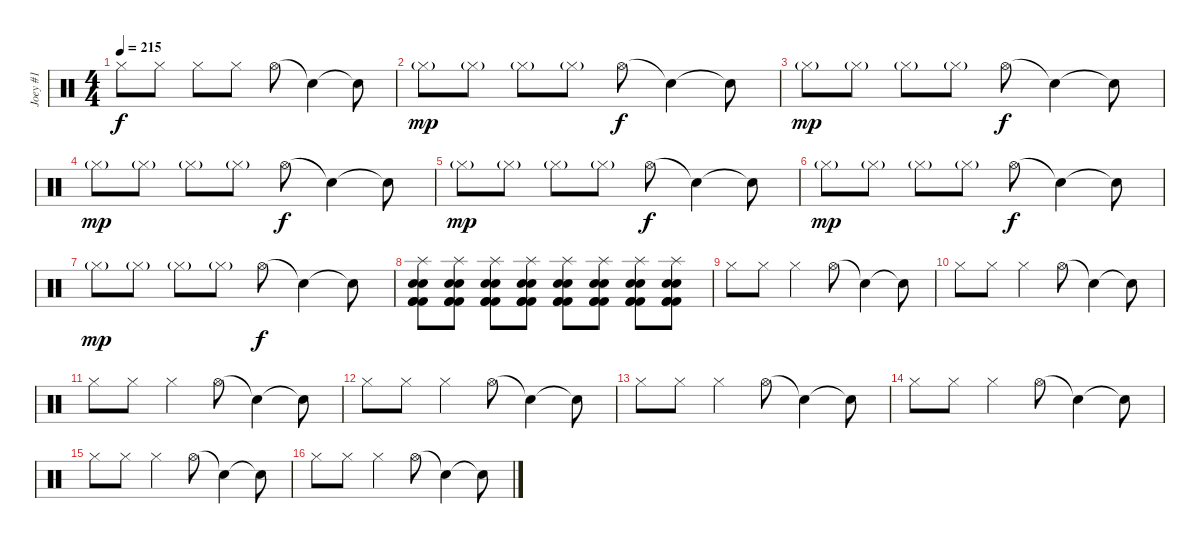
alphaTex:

\track ("Joey #1" "Joey #1") {instrument percussion}
\staff {score}
\articulation defaults
\ts (4 4)
\tempo 215
\clef neutral
\ks c "Hi-Hat (closed)".8{dy f volume 16} "Hi-Hat (closed)".8 "Hi-Hat (closed)".8 "Hi-Hat (closed)".8 "Hi-Hat (open)".8 "Snare (hit)"{t}.4 "Snare (hit)"{t}.8
|
"Hi-Hat (closed)"{g}.8{dy mp volume 10} "Hi-Hat (closed)"{g}.8 "Hi-Hat (closed)"{g}.8 "Hi-Hat (closed)"{g}.8 "Hi-Hat (open)".8{dy f} "Snare (hit)"{t}.4 "Snare (hit)"{t}.8 |
"Hi-Hat (closed)"{g}.8{dy mp} "Hi-Hat (closed)"{g}.8 "Hi-Hat (closed)"{g}.8 "Hi-Hat (closed)"{g}.8 "Hi-Hat (open)".8{dy f} "Snare (hit)"{t}.4 "Snare (hit)"{t}.8 |
"Hi-Hat (closed)"{g}.8{dy mp} "Hi-Hat (closed)"{g}.8 "Hi-Hat (closed)"{g}.8 "Hi-Hat (closed)"{g}.8 "Hi-Hat (open)".8{dy f} "Snare (hit)"{t}.4 "Snare (hit)"{t}.8 |
"Hi-Hat (closed)"{g}.8{dy mp} "Hi-Hat (closed)"{g}.8 "Hi-Hat (closed)"{g}.8 "Hi-Hat (closed)"{g}.8 "Hi-Hat (open)".8{dy f} "Snare (hit)"{t}.4 "Snare (hit)"{t}.8 |
"Hi-Hat (closed)"{g}.8{dy mp} "Hi-Hat (closed)"{g}.8 "Hi-Hat (closed)"{g}.8 "Hi-Hat (closed)"{g}.8 "Hi-Hat (open)".8{dy f} "Snare (hit)"{t}.4 "Snare (hit)"{t}.8 |
"Hi-Hat (closed)"{g}.8{dy mp} "Hi-Hat (closed)"{g}.8 "Hi-Hat (closed)"{g}.8 "Hi-Hat (closed)"{g}.8 "Hi-Hat (open)".8{dy f} "Snare (hit)"{t}.4 "Snare (hit)"{t}.8 |
("Kick (hit) 2" "Electric Snare (hit)" "Kick (hit) 2" "Splash (hit)" "Snare (hit) 2" "Kick (hit) 2").8 ("Kick (hit) 2" "Electric Snare (hit)" "Kick (hit) 2" "Splash (hit)" "Snare (hit) 2" "Kick (hit) 2").8 ("Kick (hit) 2" "Electric Snare (hit)" "Kick (hit) 2" "Splash (hit)" "Snare (hit) 2" "Kick (hit) 2").8 ("Kick (hit) 2" "Electric Snare (hit)" "Kick (hit) 2" "Splash (hit)" "Snare (hit) 2" "Kick (hit) 2").8 ("Kick (hit) 2" "Electric Snare (hit)" "Kick (hit) 2" "Splash (hit)" "Snare (hit) 2" "Kick (hit) 2").8 ("Kick (hit) 2" "Electric Snare (hit)" "Kick (hit) 2" "Splash (hit)" "Snare (hit) 2" "Kick (hit) 2").8 ("Kick (hit) 2" "Electric Snare (hit)" "Kick (hit) 2" "Splash (hit)" "Snare (hit) 2" "Kick (hit) 2").8 ("Kick (hit) 2" "Electric Snare (hit)" "Kick (hit) 2" "Splash (hit)" "Snare (hit) 2" "Kick (hit) 2").8 |
"Hi-Hat (closed)".8 "Hi-Hat (closed)".8 "Hi-Hat (closed)".4 "Hi-Hat (open)".8 "Snare (hit)"{t}.4 "Snare (hit)"{t}.8 |
"Hi-Hat (closed)".8 "Hi-Hat (closed)".8 "Hi-Hat (closed)".4 "Hi-Hat (open)".8 "Snare (hit)"{t}.4 "Snare (hit)"{t}.8 |
"Hi-Hat (closed)".8 "Hi-Hat (closed)".8 "Hi-Hat (closed)".4 "Hi-Hat (open)".8 "Snare (hit)"{t}.4 "Snare (hit)"{t}.8 |
"Hi-Hat (closed)".8 "Hi-Hat (closed)".8 "Hi-Hat (closed)".4 "Hi-Hat (open)".8 "Snare (hit)"{t}.4 "Snare (hit)"{t}.8 |
"Hi-Hat (closed)".8 "Hi-Hat (closed)".8 "Hi-Hat (closed)".4 "Hi-Hat (open)".8 "Snare (hit)"{t}.4 "Snare (hit)"{t}.8 |
"Hi-Hat (closed)".8 "Hi-Hat (closed)".8 "Hi-Hat (closed)".4 "Hi-Hat (open)".8 "Snare (hit)"{t}.4 "Snare (hit)"{t}.8 |
"Hi-Hat (closed)".8 "Hi-Hat (closed)".8 "Hi-Hat (closed)".4 "Hi-Hat (open)".8 "Snare (hit)"{t}.4 "Snare (hit)"{t}.8 |
"Hi-Hat (closed)".8 "Hi-Hat (closed)".8 "Hi-Hat (closed)".4 "Hi-Hat (open)".8 "Snare (hit)"{t}.4 "Snare (hit)"{t}.8
